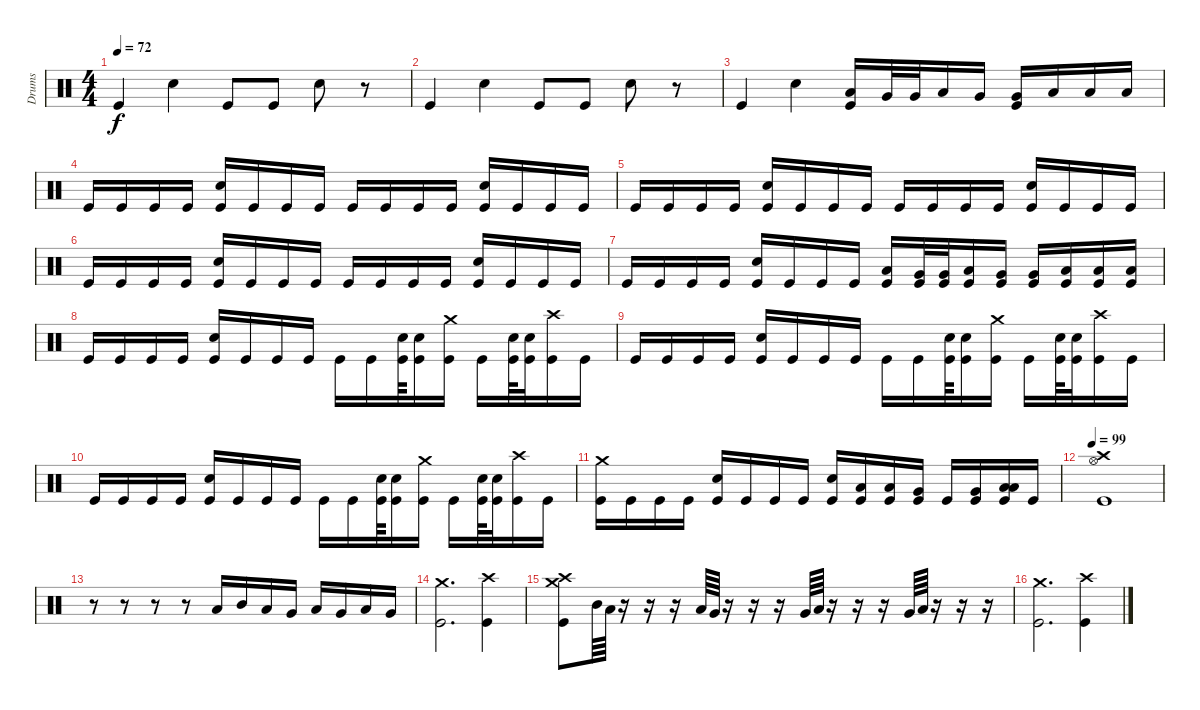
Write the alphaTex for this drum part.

\track ("Drums" "Drums") {instrument percussion}
\staff {score}
\articulation defaults
\ts (4 4)
\tempo 72
\clef neutral
\ks c "Kick (hit)".4{dy f} "Snare (hit) 2".4 "Kick (hit)".8 "Kick (hit)".8 "Snare (hit) 2".8
r.8 |
"Kick (hit)".4 "Snare (hit) 2".4 "Kick (hit)".8 "Kick (hit)".8 "Snare (hit) 2".8 r.8 |
"Kick (hit)".4 "Snare (hit) 2".4 ("Low Tom (hit)" "Kick (hit)").16 "Very Low Tom (hit)".32 "Very Low Tom (hit)".32 "Low Tom (hit)".16 "Very Low Tom (hit)".16 ("Very Low Tom (hit)" "Kick (hit)").16 "Low Floor Tom (hit)".16 "Low Floor Tom (hit)".16 "Low Floor Tom (hit)".16 |
"Kick (hit)".16 "Kick (hit)".16 "Kick (hit)".16 "Kick (hit)".16 ("Snare (hit) 2" "Kick (hit)").16 "Kick (hit)".16 "Kick (hit)".16 "Kick (hit)".16 "Kick (hit)".16 "Kick (hit)".16 "Kick (hit)".16 "Kick (hit)".16 ("Snare (hit) 2" "Kick (hit)").16 "Kick (hit)".16 "Kick (hit)".16 "Kick (hit)".16 |
"Kick (hit)".16 "Kick (hit)".16 "Kick (hit)".16 "Kick (hit)".16 ("Snare (hit) 2" "Kick (hit)").16 "Kick (hit)".16 "Kick (hit)".16 "Kick (hit)".16 "Kick (hit)".16 "Kick (hit)".16 "Kick (hit)".16 "Kick (hit)".16 ("Snare (hit) 2" "Kick (hit)").16 "Kick (hit)".16 "Kick (hit)".16 "Kick (hit)".16 |
"Kick (hit)".16 "Kick (hit)".16 "Kick (hit)".16 "Kick (hit)".16 ("Snare (hit) 2" "Kick (hit)").16 "Kick (hit)".16 "Kick (hit)".16 "Kick (hit)".16 "Kick (hit)".16 "Kick (hit)".16 "Kick (hit)".16 "Kick (hit)".16 ("Snare (hit) 2" "Kick (hit)").16 "Kick (hit)".16 "Kick (hit)".16 "Kick (hit)".16 |
"Kick (hit)".16 "Kick (hit)".16 "Kick (hit)".16 "Kick (hit)".16 ("Snare (hit) 2" "Kick (hit)").16 "Kick (hit)".16 "Kick (hit)".16 "Kick (hit)".16 ("Low Tom (hit)" "Kick (hit)").16 ("Very Low Tom (hit)" "Kick (hit)").32 ("Very Low Tom (hit)" "Kick (hit)").32 ("Low Tom (hit)" "Kick (hit)").16 ("Very Low Tom (hit)" "Kick (hit)").16 ("Very Low Tom (hit)" "Kick (hit)").16 ("Low Floor Tom (hit)" "Kick (hit)").16 ("Low Floor Tom (hit)" "Kick (hit)").16 ("Low Floor Tom (hit)" "Kick (hit)").16 |
"Kick (hit)".16 "Kick (hit)".16 "Kick (hit)".16 "Kick (hit)".16 ("Snare (hit) 2" "Kick (hit)").16 "Kick (hit)".16 "Kick (hit)".16 "Kick (hit)".16 "Kick (hit)".16 "Kick (hit)".16 ("Snare (hit) 2" "Kick (hit)").64 ("Snare (hit) 2" "Kick (hit)").16 ("Crash medium (hit)" "Kick (hit)").16 "Kick (hit)".16 ("Snare (hit) 2" "Kick (hit)").64 ("Snare (hit) 2" "Kick (hit)").32 ("Crash high (hit)" "Kick (hit)").16 "Kick (hit)".16 |
"Kick (hit)".16 "Kick (hit)".16 "Kick (hit)".16 "Kick (hit)".16 ("Snare (hit) 2" "Kick (hit)").16 "Kick (hit)".16 "Kick (hit)".16 "Kick (hit)".16 "Kick (hit)".16 "Kick (hit)".16 ("Snare (hit) 2" "Kick (hit)").64 ("Snare (hit) 2" "Kick (hit)").16 ("Crash medium (hit)" "Kick (hit)").16 "Kick (hit)".16 ("Snare (hit) 2" "Kick (hit)").64 ("Snare (hit) 2" "Kick (hit)").32 ("Crash high (hit)" "Kick (hit)").16 "Kick (hit)".16 |
"Kick (hit)".16 "Kick (hit)".16 "Kick (hit)".16 "Kick (hit)".16 ("Snare (hit) 2" "Kick (hit)").16 "Kick (hit)".16 "Kick (hit)".16 "Kick (hit)".16 "Kick (hit)".16 "Kick (hit)".16 ("Snare (hit) 2" "Kick (hit)").64 ("Snare (hit) 2" "Kick (hit)").16 ("Crash medium (hit)" "Kick (hit)").16 "Kick (hit)".16 ("Snare (hit) 2" "Kick (hit)").64 ("Snare (hit) 2" "Kick (hit)").32 ("Crash high (hit)" "Kick (hit)").16 "Kick (hit)".16 |
("Crash medium (hit)" "Kick (hit)").16 "Kick (hit)".16 "Kick (hit)".16 "Kick (hit)".16 ("Snare (hit) 2" "Kick (hit)").16 "Kick (hit)".16 "Kick (hit)".16 "Kick (hit)".16 ("Snare (hit) 2" "Kick (hit)").16 ("Low Floor Tom (hit)" "Kick (hit)").16 ("Low Floor Tom (hit)" "Kick (hit)").16 ("Very Low Tom (hit)" "Kick (hit)").16 "Kick (hit)".16 ("Very Low Tom (hit)" "Kick (hit)").16 ("Low Tom (hit)" "Low Floor Tom (hit)" "Kick (hit)").16 "Kick (hit)".16 |
\tempo 99
("Hi-Hat (open)" "Crash high (hit)" "Kick (hit)").1 |
r.8 r.8 r.8 r.8 "Low Floor Tom (hit)".16 "Mid Tom (hit)".16 "Low Tom (hit)".16 "Very Low Tom (hit)".16 "Low Tom (hit)".16 "Very Low Tom (hit)".16 "Low Tom (hit)".16 "Very Low Tom (hit)".16 |
("Crash medium (hit)" "Kick (hit)").2{d} ("Crash high (hit)" "Kick (hit)").4 |
("Crash medium (hit)" "Crash high (hit)" "Kick (hit)").8 "Mid Tom (hit)".64 "Low Tom (hit)".64 r.16 r.16 r.16 "Low Tom (hit)".64 "Very Low Tom (hit)".64 r.16 r.16 r.16 "Very Low Tom (hit)".64 "Low Floor Tom (hit)".64 r.16 r.16 r.16 "Very Low Tom (hit)".64 "Low Tom (hit)".64 r.16 r.16 r.16 |
("Crash medium (hit)" "Kick (hit)").2{d} ("Crash high (hit)" "Kick (hit)").4
